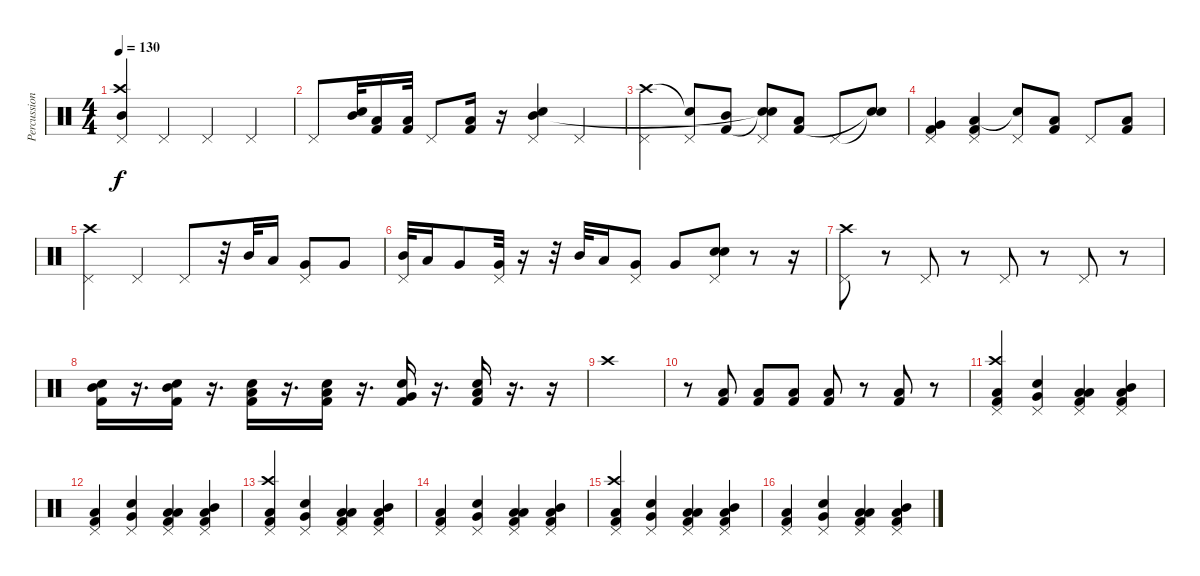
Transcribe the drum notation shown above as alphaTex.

\track ("Percussion" "Percussion") {instrument percussion}
\staff {score}
\articulation defaults
\ts (4 4)
\tempo 130
\clef neutral
\ks c
("Pedal Hi-Hat (hit)" "Crash high (hit)" "Mid Tom (hit)").4{dy f} "Pedal Hi-Hat (hit)".4 "Pedal Hi-Hat (hit)".4 "Pedal Hi-Hat (hit)".4 |
"Pedal Hi-Hat (hit)".8 ("Mid Tom (hit)" "Snare (hit) 2").32 ("Low Tom (hit)" "Kick (hit) 2").16 ("Low Tom (hit)" "Kick (hit) 2").32 "Pedal Hi-Hat (hit)".8 ("Low Tom (hit)" "Kick (hit) 2").16 r.16 ("Pedal Hi-Hat (hit)" "Electric Snare (hit)" "Mid Tom (hit)").4 "Pedal Hi-Hat (hit)".4 |
("Pedal Hi-Hat (hit)" "Crash high (hit)").4 ("Pedal Hi-Hat (hit)" "Snare (hit)"{t}).8 ("Mid Tom (hit)" "Kick (hit) 2").8{bd 480} ("Pedal Hi-Hat (hit)" "Snare (hit)"{t} "Snare (hit)"{t}).8 ("Low Tom (hit)" "Kick (hit) 2").8{bd 480} "Pedal Hi-Hat (hit)".8 ("Snare (hit)"{t} "Snare (hit)"{t}).8 |
("Pedal Hi-Hat (hit)" "Very Low Tom (hit)" "Kick (hit) 2").4{bd 120} ("Pedal Hi-Hat (hit)" "Low Floor Tom (hit)" "Kick (hit) 2").4{bd 120} ("Pedal Hi-Hat (hit)" "Snare (hit)"{t}).8 ("Low Floor Tom (hit)" "Kick (hit) 2").8 "Pedal Hi-Hat (hit)".8 ("Low Floor Tom (hit)" "Kick (hit) 2").8 |
("Pedal Hi-Hat (hit)" "Crash high (hit)").4 "Pedal Hi-Hat (hit)".4 "Pedal Hi-Hat (hit)".8 r.32 "Mid Tom (hit)".32 "Low Tom (hit)".16 ("Pedal Hi-Hat (hit)" "Very Low Tom (hit)").8 "Very Low Tom (hit)".8 |
("Pedal Hi-Hat (hit)" "Mid Tom (hit)").32 "Low Tom (hit)".16 "Very Low Tom (hit)".8 ("Pedal Hi-Hat (hit)" "Very Low Tom (hit)").32 r.16 r.32 "Mid Tom (hit)".32 "Low Tom (hit)".16 ("Pedal Hi-Hat (hit)" "Very Low Tom (hit)").8 "Very Low Tom (hit)".8 ("Pedal Hi-Hat (hit)" "Snare (hit) 2" "Snare (hit) 2").8 r.8 r.16 |
("Pedal Hi-Hat (hit)" "Crash high (hit)").8 r.8 "Pedal Hi-Hat (hit)".8 r.8 "Pedal Hi-Hat (hit)".8 r.8 "Pedal Hi-Hat (hit)".8 r.8 |
("Mid Tom (hit)" "Kick (hit) 2" "Electric Snare (hit)").16{bd 480} r.16{d} ("Mid Tom (hit)" "Kick (hit) 2" "Electric Snare (hit)").16{bd 480} r.16{d} ("Low Tom (hit)" "Kick (hit) 2" "Electric Snare (hit)").16{bd 480} r.16{d} ("Low Tom (hit)" "Kick (hit) 2" "Electric Snare (hit)").16{bd 480} r.16{d} ("Very Low Tom (hit)" "Kick (hit) 2" "Electric Snare (hit)").16 r.16{d} ("Low Floor Tom (hit)" "Kick (hit) 2" "Electric Snare (hit)").16 r.16{d} r.16 |
"Crash high (hit)".1 |
r.8 ("Low Floor Tom (hit)" "Kick (hit) 2").8 ("Low Floor Tom (hit)" "Kick (hit) 2").8 ("Low Floor Tom (hit)" "Kick (hit) 2").8 ("Low Floor Tom (hit)" "Kick (hit) 2").8 r.8 ("Low Floor Tom (hit)" "Kick (hit) 2").8 r.8 |
("Pedal Hi-Hat (hit)" "Crash high (hit)" "Kick (hit) 2" "Low Floor Tom (hit)").4 ("Pedal Hi-Hat (hit)" "Very Low Tom (hit)" "Snare (hit) 2").4 ("Pedal Hi-Hat (hit)" "Low Floor Tom (hit)" "Kick (hit) 2" "Low Tom (hit)").4 ("Pedal Hi-Hat (hit)" "Low Tom (hit)" "Kick (hit) 2" "Mid Tom (hit)").4 |
("Pedal Hi-Hat (hit)" "Kick (hit) 2" "Low Floor Tom (hit)").4 ("Pedal Hi-Hat (hit)" "Very Low Tom (hit)" "Snare (hit) 2").4 ("Pedal Hi-Hat (hit)" "Low Floor Tom (hit)" "Kick (hit) 2" "Low Tom (hit)").4 ("Pedal Hi-Hat (hit)" "Low Tom (hit)" "Kick (hit) 2" "Mid Tom (hit)").4 |
("Pedal Hi-Hat (hit)" "Crash high (hit)" "Kick (hit) 2" "Low Floor Tom (hit)").4 ("Pedal Hi-Hat (hit)" "Very Low Tom (hit)" "Snare (hit) 2").4 ("Pedal Hi-Hat (hit)" "Low Floor Tom (hit)" "Kick (hit) 2" "Low Tom (hit)").4 ("Pedal Hi-Hat (hit)" "Low Tom (hit)" "Kick (hit) 2" "Mid Tom (hit)").4 |
("Pedal Hi-Hat (hit)" "Kick (hit) 2" "Low Floor Tom (hit)").4 ("Pedal Hi-Hat (hit)" "Very Low Tom (hit)" "Snare (hit) 2").4 ("Pedal Hi-Hat (hit)" "Low Floor Tom (hit)" "Kick (hit) 2" "Low Tom (hit)").4 ("Pedal Hi-Hat (hit)" "Low Tom (hit)" "Kick (hit) 2" "Mid Tom (hit)").4 |
("Pedal Hi-Hat (hit)" "Crash high (hit)" "Kick (hit) 2" "Low Floor Tom (hit)").4 ("Pedal Hi-Hat (hit)" "Very Low Tom (hit)" "Snare (hit) 2").4 ("Pedal Hi-Hat (hit)" "Low Floor Tom (hit)" "Kick (hit) 2" "Low Tom (hit)").4 ("Pedal Hi-Hat (hit)" "Low Tom (hit)" "Kick (hit) 2" "Mid Tom (hit)").4 |
("Pedal Hi-Hat (hit)" "Kick (hit) 2" "Low Floor Tom (hit)").4 ("Pedal Hi-Hat (hit)" "Very Low Tom (hit)" "Snare (hit) 2").4 ("Pedal Hi-Hat (hit)" "Low Floor Tom (hit)" "Kick (hit) 2" "Low Tom (hit)").4 ("Pedal Hi-Hat (hit)" "Low Tom (hit)" "Kick (hit) 2" "Mid Tom (hit)").4
